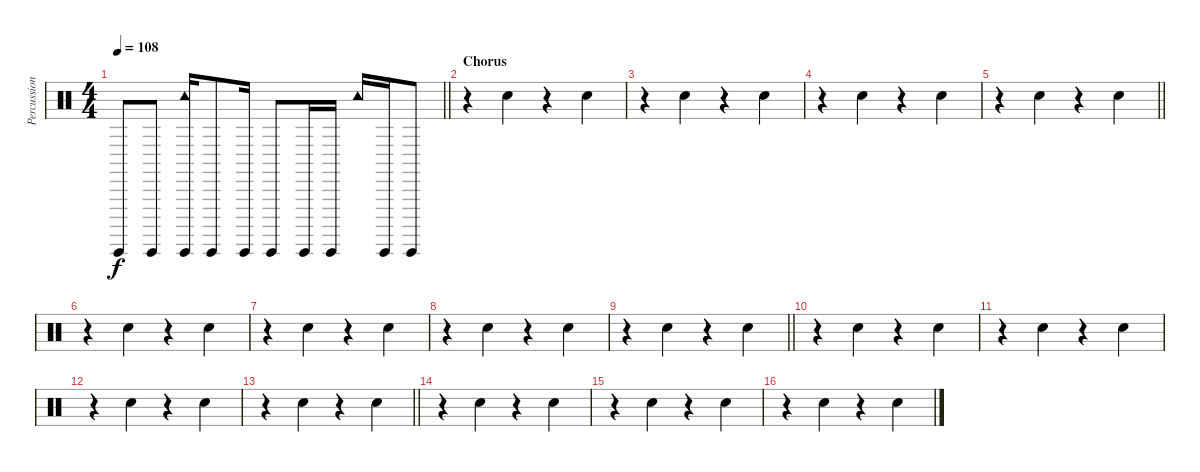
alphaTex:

\track ("Percussion (Chad Smith)" "Percussion") {instrument percussion}
\staff {score}
\articulation defaults
\ts (4 4)
\tempo 108
\clef neutral
\barLineRight lightlight
\ks c "Guiro (hit)".8{dy f} "Guiro (hit)".8
("Guiro (hit)" "Tambourine (hit)").16 "Guiro (hit)".8 "Guiro (hit)".16 "Guiro (hit)".8 "Guiro (hit)".16 "Guiro (hit)".16 "Tambourine (hit)".16 "Guiro (hit)".16 "Guiro (hit)".8 |
\section ("" "Chorus")
r.4 "Hand Clap (hit)".4 r.4 "Hand Clap (hit)".4 |
r.4 "Hand Clap (hit)".4 r.4 "Hand Clap (hit)".4 |
r.4 "Hand Clap (hit)".4 r.4 "Hand Clap (hit)".4 |
\barLineRight lightlight
r.4 "Hand Clap (hit)".4 r.4 "Hand Clap (hit)".4 |
r.4 "Hand Clap (hit)".4 r.4 "Hand Clap (hit)".4 |
r.4 "Hand Clap (hit)".4 r.4 "Hand Clap (hit)".4 |
r.4 "Hand Clap (hit)".4 r.4 "Hand Clap (hit)".4 |
\barLineRight lightlight
r.4 "Hand Clap (hit)".4 r.4 "Hand Clap (hit)".4 |
r.4 "Hand Clap (hit)".4 r.4 "Hand Clap (hit)".4 |
r.4 "Hand Clap (hit)".4 r.4 "Hand Clap (hit)".4 |
r.4 "Hand Clap (hit)".4 r.4 "Hand Clap (hit)".4 |
\barLineRight lightlight
r.4 "Hand Clap (hit)".4 r.4 "Hand Clap (hit)".4 |
r.4 "Hand Clap (hit)".4 r.4 "Hand Clap (hit)".4 |
r.4 "Hand Clap (hit)".4 r.4 "Hand Clap (hit)".4 |
r.4 "Hand Clap (hit)".4 r.4 "Hand Clap (hit)".4
